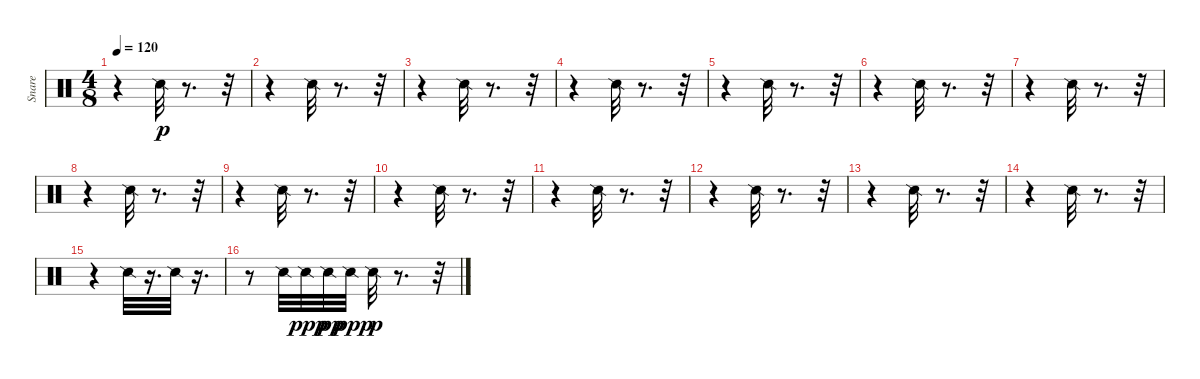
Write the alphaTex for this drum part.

\track ("Snare" "Snare") {instrument percussion}
\staff {score}
\articulation defaults
\ts (4 8)
\tempo 120
\clef neutral
\ks c
r.4{dy p} "Snare (side stick) 2".32 r.8{d} r.32 |
r.4 "Snare (side stick) 2".32 r.8{d} r.32 |
r.4 "Snare (side stick) 2".32 r.8{d} r.32 |
r.4 "Snare (side stick) 2".32 r.8{d} r.32 |
r.4 "Snare (side stick) 2".32 r.8{d} r.32 |
r.4 "Snare (side stick) 2".32 r.8{d} r.32 |
r.4 "Snare (side stick) 2".32 r.8{d} r.32 |
r.4 "Snare (side stick) 2".32 r.8{d} r.32 |
r.4 "Snare (side stick) 2".32 r.8{d} r.32 |
r.4 "Snare (side stick) 2".32 r.8{d} r.32 |
r.4 "Snare (side stick) 2".32 r.8{d} r.32 |
r.4 "Snare (side stick) 2".32 r.8{d} r.32 |
r.4 "Snare (side stick) 2".32 r.8{d} r.32 |
r.4 "Snare (side stick) 2".32 r.8{d} r.32 |
r.4 "Snare (side stick) 2".32 r.16{d} "Snare (side stick) 2".32 r.16{d} |
r.8 "Snare (side stick) 2".32 "Snare (side stick) 2".32{dy ppp} "Snare (side stick) 2".32{dy pp} "Snare (side stick) 2".32{dy ppp} "Snare (side stick) 2".32{dy p} r.8{d} r.32
